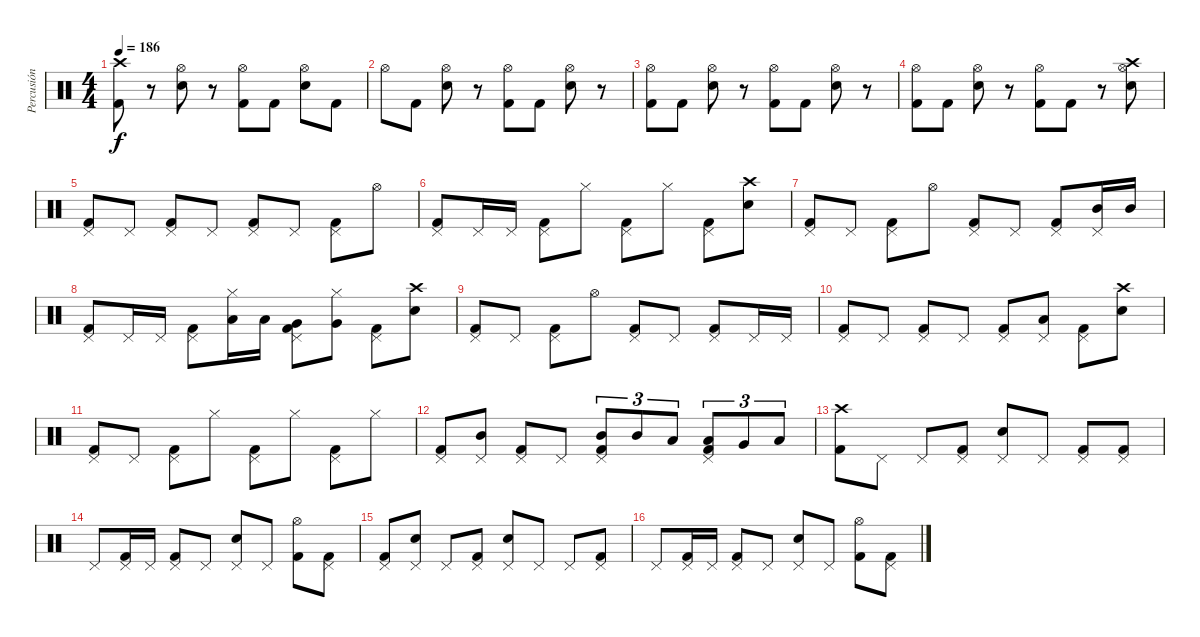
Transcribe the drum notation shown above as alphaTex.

\track ("Percusión" "Percusión") {instrument percussion}
\staff {score}
\articulation defaults
\ts (4 4)
\tempo 186
\clef neutral
\ks c
("Kick (hit) 2" "Crash high (hit)").8{dy f} r.8 ("Hi-Hat (open)" "Snare (hit) 2").8 r.8 ("Kick (hit) 2" "Hi-Hat (open)").8 "Kick (hit) 2".8 ("Hi-Hat (open)" "Snare (hit) 2").8 "Kick (hit) 2".8 |
"Hi-Hat (open)".8 "Kick (hit) 2".8 ("Hi-Hat (open)" "Snare (hit) 2").8 r.8 ("Kick (hit) 2" "Hi-Hat (open)").8 "Kick (hit) 2".8 ("Hi-Hat (open)" "Snare (hit) 2").8 r.8 |
("Kick (hit) 2" "Hi-Hat (open)").8 "Kick (hit) 2".8 ("Hi-Hat (open)" "Snare (hit) 2").8 r.8 ("Kick (hit) 2" "Hi-Hat (open)").8 "Kick (hit) 2".8 ("Hi-Hat (open)" "Snare (hit) 2").8 r.8 |
("Kick (hit) 2" "Hi-Hat (open)").8 "Kick (hit) 2".8 ("Hi-Hat (open)" "Snare (hit) 2").8 r.8 ("Kick (hit) 2" "Hi-Hat (open)").8 "Kick (hit) 2".8 r.8 ("Hi-Hat (open)" "Snare (hit) 2" "Crash high (hit)").8 |
("Kick (hit) 2" "Pedal Hi-Hat (hit)").8 "Pedal Hi-Hat (hit)".8 ("Kick (hit) 2" "Pedal Hi-Hat (hit)").8 "Pedal Hi-Hat (hit)".8 ("Kick (hit) 2" "Pedal Hi-Hat (hit)").8 "Pedal Hi-Hat (hit)".8 ("Kick (hit) 2" "Pedal Hi-Hat (hit)").8 "Hi-Hat (open)".8 |
("Kick (hit) 2" "Pedal Hi-Hat (hit)").8 "Pedal Hi-Hat (hit)".16 "Pedal Hi-Hat (hit)".16 ("Kick (hit) 2" "Pedal Hi-Hat (hit)").8 "Hi-Hat (closed)".8 ("Kick (hit) 2" "Pedal Hi-Hat (hit)").8 "Hi-Hat (closed)".8 ("Kick (hit) 2" "Pedal Hi-Hat (hit)").8 ("Snare (hit) 2" "Crash high (hit)").8 |
("Kick (hit) 2" "Pedal Hi-Hat (hit)").8 "Pedal Hi-Hat (hit)".8 ("Kick (hit) 2" "Pedal Hi-Hat (hit)").8 "Hi-Hat (open)".8 ("Kick (hit) 2" "Pedal Hi-Hat (hit)").8 "Pedal Hi-Hat (hit)".8 ("Kick (hit) 2" "Pedal Hi-Hat (hit)").8 ("Pedal Hi-Hat (hit)" "Mid Tom (hit)").16 "Mid Tom (hit)".16 |
("Kick (hit) 2" "Pedal Hi-Hat (hit)").8 "Pedal Hi-Hat (hit)".16 "Pedal Hi-Hat (hit)".16 ("Kick (hit) 2" "Pedal Hi-Hat (hit)").8 ("Hi-Hat (closed)" "Low Tom (hit)").16 "Low Tom (hit)".16 ("Kick (hit) 2" "Pedal Hi-Hat (hit)" "Very Low Tom (hit)").8 ("Hi-Hat (closed)" "Very Low Tom (hit)").8 ("Kick (hit) 2" "Pedal Hi-Hat (hit)").8 ("Snare (hit) 2" "Crash high (hit)").8 |
("Kick (hit) 2" "Pedal Hi-Hat (hit)").8 "Pedal Hi-Hat (hit)".8 ("Kick (hit) 2" "Pedal Hi-Hat (hit)").8 "Hi-Hat (open)".8 ("Kick (hit) 2" "Pedal Hi-Hat (hit)").8 "Pedal Hi-Hat (hit)".8 ("Kick (hit) 2" "Pedal Hi-Hat (hit)").8 "Pedal Hi-Hat (hit)".16 "Pedal Hi-Hat (hit)".16 |
("Kick (hit) 2" "Pedal Hi-Hat (hit)").8 "Pedal Hi-Hat (hit)".8 ("Kick (hit) 2" "Pedal Hi-Hat (hit)").8 "Pedal Hi-Hat (hit)".8 ("Kick (hit) 2" "Pedal Hi-Hat (hit)").8 ("Pedal Hi-Hat (hit)" "Low Tom (hit)").8 ("Kick (hit) 2" "Pedal Hi-Hat (hit)").8 ("Snare (hit) 2" "Crash high (hit)").8 |
("Kick (hit) 2" "Pedal Hi-Hat (hit)").8 "Pedal Hi-Hat (hit)".8 ("Kick (hit) 2" "Pedal Hi-Hat (hit)").8 "Hi-Hat (closed)".8 ("Kick (hit) 2" "Pedal Hi-Hat (hit)").8 "Hi-Hat (closed)".8 ("Kick (hit) 2" "Pedal Hi-Hat (hit)").8 "Hi-Hat (closed)".8 |
("Kick (hit) 2" "Pedal Hi-Hat (hit)").8 ("Pedal Hi-Hat (hit)" "Mid Tom (hit)").8 ("Kick (hit) 2" "Pedal Hi-Hat (hit)").8 "Pedal Hi-Hat (hit)".8 ("Kick (hit) 2" "Pedal Hi-Hat (hit)" "Mid Tom (hit)").8{tu (3 2)} "Mid Tom (hit)".8{tu (3 2)} "Low Tom (hit)".8{tu (3 2)} ("Kick (hit) 2" "Pedal Hi-Hat (hit)" "Low Tom (hit)").8{tu (3 2)} "Very Low Tom (hit)".8{tu (3 2)} "Low Floor Tom (hit)".8{tu (3 2)} |
("Kick (hit) 2" "Crash high (hit)").8 "Pedal Hi-Hat (hit)".8 "Pedal Hi-Hat (hit)".8 ("Kick (hit) 2" "Pedal Hi-Hat (hit)").8 ("Pedal Hi-Hat (hit)" "Snare (hit) 2").8 "Pedal Hi-Hat (hit)".8 ("Kick (hit) 2" "Pedal Hi-Hat (hit)").8 ("Kick (hit) 2" "Pedal Hi-Hat (hit)").8 |
"Pedal Hi-Hat (hit)".8 ("Kick (hit) 2" "Pedal Hi-Hat (hit)").16 "Pedal Hi-Hat (hit)".16 ("Kick (hit) 2" "Pedal Hi-Hat (hit)").8 "Pedal Hi-Hat (hit)".8 ("Pedal Hi-Hat (hit)" "Snare (hit) 2").8 "Pedal Hi-Hat (hit)".8 ("Kick (hit) 2" "Hi-Hat (open)").8 ("Kick (hit) 2" "Pedal Hi-Hat (hit)").8 |
("Kick (hit) 2" "Pedal Hi-Hat (hit)").8 ("Pedal Hi-Hat (hit)" "Snare (hit) 2").8 "Pedal Hi-Hat (hit)".8 ("Kick (hit) 2" "Pedal Hi-Hat (hit)").8 ("Pedal Hi-Hat (hit)" "Snare (hit) 2").8 "Pedal Hi-Hat (hit)".8 "Pedal Hi-Hat (hit)".8 ("Kick (hit) 2" "Pedal Hi-Hat (hit)").8 |
"Pedal Hi-Hat (hit)".8 ("Kick (hit) 2" "Pedal Hi-Hat (hit)").16 "Pedal Hi-Hat (hit)".16 ("Kick (hit) 2" "Pedal Hi-Hat (hit)").8 "Pedal Hi-Hat (hit)".8 ("Pedal Hi-Hat (hit)" "Snare (hit) 2").8 "Pedal Hi-Hat (hit)".8 ("Kick (hit) 2" "Hi-Hat (open)").8 ("Kick (hit) 2" "Pedal Hi-Hat (hit)").8
